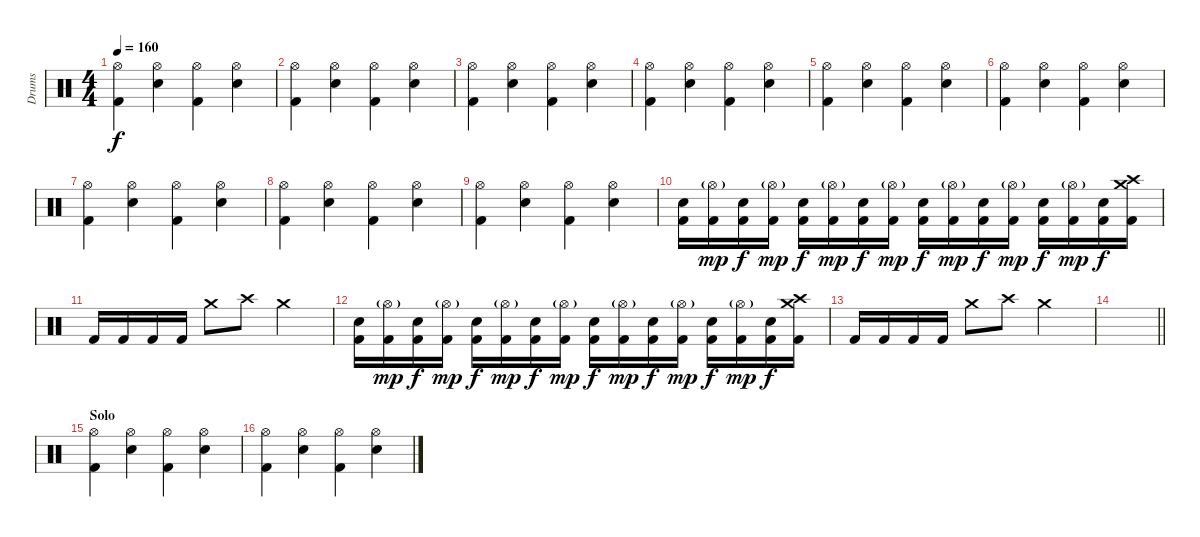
\track ("Drums" "Drums") {instrument percussion}
\staff {score}
\articulation defaults
\ts (4 4)
\tempo 160
\clef neutral
\ks c
("Hi-Hat (open)" "Kick (hit) 2").4{dy f} ("Hi-Hat (open)" "Electric Snare (hit)").4 ("Hi-Hat (open)" "Kick (hit) 2").4 ("Hi-Hat (open)" "Electric Snare (hit)").4 |
("Hi-Hat (open)" "Kick (hit) 2").4 ("Hi-Hat (open)" "Electric Snare (hit)").4 ("Hi-Hat (open)" "Kick (hit) 2").4 ("Hi-Hat (open)" "Electric Snare (hit)").4 |
("Hi-Hat (open)" "Kick (hit) 2").4 ("Hi-Hat (open)" "Electric Snare (hit)").4 ("Hi-Hat (open)" "Kick (hit) 2").4 ("Hi-Hat (open)" "Electric Snare (hit)").4 |
("Hi-Hat (open)" "Kick (hit) 2").4 ("Hi-Hat (open)" "Electric Snare (hit)").4 ("Hi-Hat (open)" "Kick (hit) 2").4 ("Hi-Hat (open)" "Electric Snare (hit)").4 |
("Hi-Hat (open)" "Kick (hit) 2").4 ("Hi-Hat (open)" "Electric Snare (hit)").4 ("Hi-Hat (open)" "Kick (hit) 2").4 ("Hi-Hat (open)" "Electric Snare (hit)").4 |
("Hi-Hat (open)" "Kick (hit) 2").4 ("Hi-Hat (open)" "Electric Snare (hit)").4 ("Hi-Hat (open)" "Kick (hit) 2").4 ("Hi-Hat (open)" "Electric Snare (hit)").4 |
("Hi-Hat (open)" "Kick (hit) 2").4 ("Hi-Hat (open)" "Electric Snare (hit)").4 ("Hi-Hat (open)" "Kick (hit) 2").4 ("Hi-Hat (open)" "Electric Snare (hit)").4 |
("Hi-Hat (open)" "Kick (hit) 2").4 ("Hi-Hat (open)" "Electric Snare (hit)").4 ("Hi-Hat (open)" "Kick (hit) 2").4 ("Hi-Hat (open)" "Electric Snare (hit)").4 |
("Hi-Hat (open)" "Kick (hit) 2").4 ("Hi-Hat (open)" "Electric Snare (hit)").4 ("Hi-Hat (open)" "Kick (hit) 2").4 ("Hi-Hat (open)" "Electric Snare (hit)").4 |
("Electric Snare (hit)" "Kick (hit) 2").16 ("Hi-Hat (open)"{g} "Kick (hit) 2").16{dy mp} ("Electric Snare (hit)" "Kick (hit) 2").16{dy f} ("Hi-Hat (open)"{g} "Kick (hit) 2").16{dy mp} ("Electric Snare (hit)" "Kick (hit) 2").16{dy f} ("Hi-Hat (open)"{g} "Kick (hit) 2").16{dy mp} ("Electric Snare (hit)" "Kick (hit) 2").16{dy f} ("Hi-Hat (open)"{g} "Kick (hit) 2").16{dy mp} ("Electric Snare (hit)" "Kick (hit) 2").16{dy f} ("Hi-Hat (open)"{g} "Kick (hit) 2").16{dy mp} ("Electric Snare (hit)" "Kick (hit) 2").16{dy f} ("Hi-Hat (open)"{g} "Kick (hit) 2").16{dy mp} ("Electric Snare (hit)" "Kick (hit) 2").16{dy f} ("Hi-Hat (open)"{g} "Kick (hit) 2").16{dy mp} ("Electric Snare (hit)" "Kick (hit) 2").16{dy f} ("Crash medium (hit)" "Crash high (hit)" "Kick (hit) 2").16 |
"Kick (hit) 2".16 "Kick (hit) 2".16 "Kick (hit) 2".16 "Kick (hit) 2".16 "Crash medium (hit)".8 "Crash high (hit)".8 "Crash medium (hit)".2 |
("Electric Snare (hit)" "Kick (hit) 2").16 ("Hi-Hat (open)"{g} "Kick (hit) 2").16{dy mp} ("Electric Snare (hit)" "Kick (hit) 2").16{dy f} ("Hi-Hat (open)"{g} "Kick (hit) 2").16{dy mp} ("Electric Snare (hit)" "Kick (hit) 2").16{dy f} ("Hi-Hat (open)"{g} "Kick (hit) 2").16{dy mp} ("Electric Snare (hit)" "Kick (hit) 2").16{dy f} ("Hi-Hat (open)"{g} "Kick (hit) 2").16{dy mp} ("Electric Snare (hit)" "Kick (hit) 2").16{dy f} ("Hi-Hat (open)"{g} "Kick (hit) 2").16{dy mp} ("Electric Snare (hit)" "Kick (hit) 2").16{dy f} ("Hi-Hat (open)"{g} "Kick (hit) 2").16{dy mp} ("Electric Snare (hit)" "Kick (hit) 2").16{dy f} ("Hi-Hat (open)"{g} "Kick (hit) 2").16{dy mp} ("Electric Snare (hit)" "Kick (hit) 2").16{dy f} ("Crash medium (hit)" "Crash high (hit)" "Kick (hit) 2").16 |
"Kick (hit) 2".16 "Kick (hit) 2".16 "Kick (hit) 2".16 "Kick (hit) 2".16 "Crash medium (hit)".8 "Crash high (hit)".8 "Crash medium (hit)".2 |
\barLineRight lightlight
|
\section ("" "Solo")
("Hi-Hat (open)" "Kick (hit) 2").4 ("Hi-Hat (open)" "Electric Snare (hit)").4 ("Hi-Hat (open)" "Kick (hit) 2").4 ("Hi-Hat (open)" "Electric Snare (hit)").4 |
("Hi-Hat (open)" "Kick (hit) 2").4 ("Hi-Hat (open)" "Electric Snare (hit)").4 ("Hi-Hat (open)" "Kick (hit) 2").4 ("Hi-Hat (open)" "Electric Snare (hit)").4
